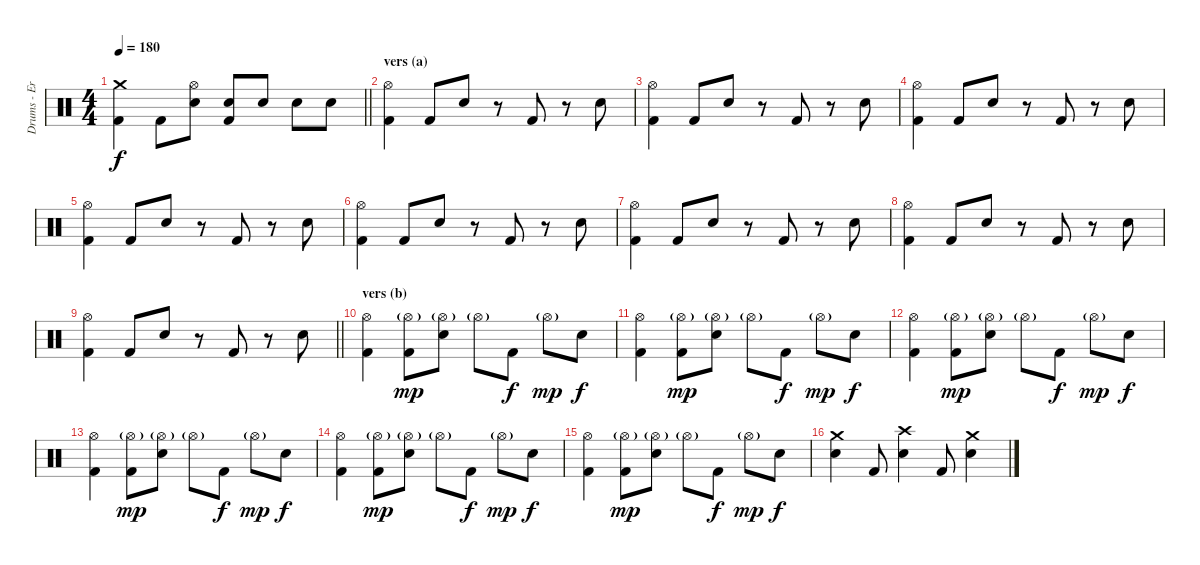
\track ("Drums - Eric Young" "Drums - Er") {instrument percussion}
\staff {score}
\articulation defaults
\ts (4 4)
\tempo 180
\clef neutral
\barLineRight lightlight
\ks c
("Crash medium (hit)" "Kick (hit) 2").4{dy f} "Kick (hit) 2".8 ("Hi-Hat (open)" "Electric Snare (hit)").8 ("Electric Snare (hit)" "Kick (hit) 2").8 "Electric Snare (hit)".8 "Electric Snare (hit)".8 "Electric Snare (hit)".8 |
\section ("" "vers (a)")
("Hi-Hat (open)" "Kick (hit) 2").4 "Kick (hit) 2".8 "Electric Snare (hit)".8 r.8 "Kick (hit) 2".8 r.8 "Electric Snare (hit)".8 |
("Hi-Hat (open)" "Kick (hit) 2").4 "Kick (hit) 2".8 "Electric Snare (hit)".8 r.8 "Kick (hit) 2".8 r.8 "Electric Snare (hit)".8 |
("Hi-Hat (open)" "Kick (hit) 2").4 "Kick (hit) 2".8 "Electric Snare (hit)".8 r.8 "Kick (hit) 2".8 r.8 "Electric Snare (hit)".8 |
("Hi-Hat (open)" "Kick (hit) 2").4 "Kick (hit) 2".8 "Electric Snare (hit)".8 r.8 "Kick (hit) 2".8 r.8 "Electric Snare (hit)".8 |
("Hi-Hat (open)" "Kick (hit) 2").4 "Kick (hit) 2".8 "Electric Snare (hit)".8 r.8 "Kick (hit) 2".8 r.8 "Electric Snare (hit)".8 |
("Hi-Hat (open)" "Kick (hit) 2").4 "Kick (hit) 2".8 "Electric Snare (hit)".8 r.8 "Kick (hit) 2".8 r.8 "Electric Snare (hit)".8 |
("Hi-Hat (open)" "Kick (hit) 2").4 "Kick (hit) 2".8 "Electric Snare (hit)".8 r.8 "Kick (hit) 2".8 r.8 "Electric Snare (hit)".8 |
\barLineRight lightlight
("Hi-Hat (open)" "Kick (hit) 2").4 "Kick (hit) 2".8 "Electric Snare (hit)".8 r.8 "Kick (hit) 2".8 r.8 "Electric Snare (hit)".8 |
\section ("" "vers (b)")
("Hi-Hat (open)" "Kick (hit) 2").4 ("Hi-Hat (open)"{g} "Kick (hit) 2").8{dy mp} ("Hi-Hat (open)"{g} "Electric Snare (hit)").8 "Hi-Hat (open)"{g}.8 "Kick (hit) 2".8{dy f} "Hi-Hat (open)"{g}.8{dy mp} "Electric Snare (hit)".8{dy f} |
("Hi-Hat (open)" "Kick (hit) 2").4 ("Hi-Hat (open)"{g} "Kick (hit) 2").8{dy mp} ("Hi-Hat (open)"{g} "Electric Snare (hit)").8 "Hi-Hat (open)"{g}.8 "Kick (hit) 2".8{dy f} "Hi-Hat (open)"{g}.8{dy mp} "Electric Snare (hit)".8{dy f} |
("Hi-Hat (open)" "Kick (hit) 2").4 ("Hi-Hat (open)"{g} "Kick (hit) 2").8{dy mp} ("Hi-Hat (open)"{g} "Electric Snare (hit)").8 "Hi-Hat (open)"{g}.8 "Kick (hit) 2".8{dy f} "Hi-Hat (open)"{g}.8{dy mp} "Electric Snare (hit)".8{dy f} |
("Hi-Hat (open)" "Kick (hit) 2").4 ("Hi-Hat (open)"{g} "Kick (hit) 2").8{dy mp} ("Hi-Hat (open)"{g} "Electric Snare (hit)").8 "Hi-Hat (open)"{g}.8 "Kick (hit) 2".8{dy f} "Hi-Hat (open)"{g}.8{dy mp} "Electric Snare (hit)".8{dy f} |
("Hi-Hat (open)" "Kick (hit) 2").4 ("Hi-Hat (open)"{g} "Kick (hit) 2").8{dy mp} ("Hi-Hat (open)"{g} "Electric Snare (hit)").8 "Hi-Hat (open)"{g}.8 "Kick (hit) 2".8{dy f} "Hi-Hat (open)"{g}.8{dy mp} "Electric Snare (hit)".8{dy f} |
("Hi-Hat (open)" "Kick (hit) 2").4 ("Hi-Hat (open)"{g} "Kick (hit) 2").8{dy mp} ("Hi-Hat (open)"{g} "Electric Snare (hit)").8 "Hi-Hat (open)"{g}.8 "Kick (hit) 2".8{dy f} "Hi-Hat (open)"{g}.8{dy mp} "Electric Snare (hit)".8{dy f} |
("Crash medium (hit)" "Electric Snare (hit)").4 "Kick (hit) 2".8 ("Crash high (hit)" "Electric Snare (hit)").4 "Kick (hit) 2".8 ("Crash medium (hit)" "Electric Snare (hit)").4
